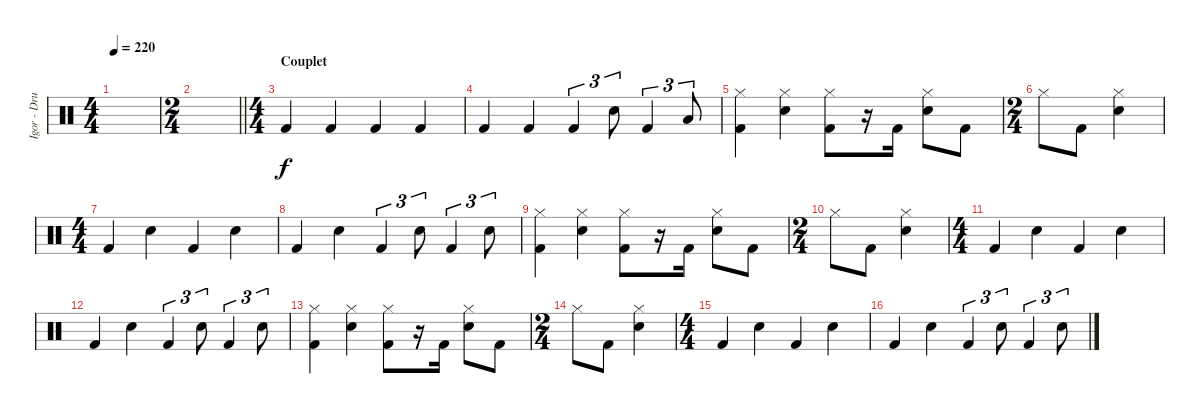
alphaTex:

\track ("Igor - Drums" "Igor - Dru") {instrument percussion}
\staff {score}
\articulation defaults
\ts (4 4)
\tempo 220
\clef neutral
\ks c
|
\ts (2 4)
\barLineRight lightlight
|
\ts (4 4)
\section ("" "Couplet")
"Kick (hit) 2".4 "Kick (hit) 2".4 "Kick (hit) 2".4 "Kick (hit) 2".4 |
"Kick (hit) 2".4 "Kick (hit) 2".4 "Kick (hit) 2".4{tu (3 2)} "Electric Snare (hit)".8{tu (3 2)} "Kick (hit) 2".4{tu (3 2)} "Low Floor Tom (hit)".8{tu (3 2)} |
("Hi-Hat (closed)" "Kick (hit) 2").4 ("Hi-Hat (closed)" "Electric Snare (hit)").4 ("Hi-Hat (closed)" "Kick (hit) 2").8 r.16 "Kick (hit) 2".16 ("Hi-Hat (closed)" "Electric Snare (hit)").8 "Kick (hit) 2".8 |
\ts (2 4)
"Hi-Hat (closed)".8 "Kick (hit) 2".8 ("Hi-Hat (closed)" "Electric Snare (hit)").4 |
\ts (4 4)
"Kick (hit) 2".4 "Electric Snare (hit)".4 "Kick (hit) 2".4 "Electric Snare (hit)".4 |
"Kick (hit) 2".4 "Electric Snare (hit)".4 "Kick (hit) 2".4{tu (3 2)} "Electric Snare (hit)".8{tu (3 2)} "Kick (hit) 2".4{tu (3 2)} "Electric Snare (hit)".8{tu (3 2)} |
("Hi-Hat (closed)" "Kick (hit) 2").4 ("Hi-Hat (closed)" "Electric Snare (hit)").4 ("Hi-Hat (closed)" "Kick (hit) 2").8 r.16 "Kick (hit) 2".16 ("Hi-Hat (closed)" "Electric Snare (hit)").8 "Kick (hit) 2".8 |
\ts (2 4)
"Hi-Hat (closed)".8 "Kick (hit) 2".8 ("Hi-Hat (closed)" "Electric Snare (hit)").4 |
\ts (4 4)
"Kick (hit) 2".4 "Electric Snare (hit)".4 "Kick (hit) 2".4 "Electric Snare (hit)".4 |
"Kick (hit) 2".4 "Electric Snare (hit)".4 "Kick (hit) 2".4{tu (3 2)} "Electric Snare (hit)".8{tu (3 2)} "Kick (hit) 2".4{tu (3 2)} "Electric Snare (hit)".8{tu (3 2)} |
("Hi-Hat (closed)" "Kick (hit) 2").4 ("Hi-Hat (closed)" "Electric Snare (hit)").4 ("Hi-Hat (closed)" "Kick (hit) 2").8 r.16 "Kick (hit) 2".16 ("Hi-Hat (closed)" "Electric Snare (hit)").8 "Kick (hit) 2".8 |
\ts (2 4)
"Hi-Hat (closed)".8 "Kick (hit) 2".8 ("Hi-Hat (closed)" "Electric Snare (hit)").4 |
\ts (4 4)
"Kick (hit) 2".4 "Electric Snare (hit)".4 "Kick (hit) 2".4 "Electric Snare (hit)".4 |
"Kick (hit) 2".4 "Electric Snare (hit)".4 "Kick (hit) 2".4{tu (3 2)} "Electric Snare (hit)".8{tu (3 2)} "Kick (hit) 2".4{tu (3 2)} "Electric Snare (hit)".8{tu (3 2)}
